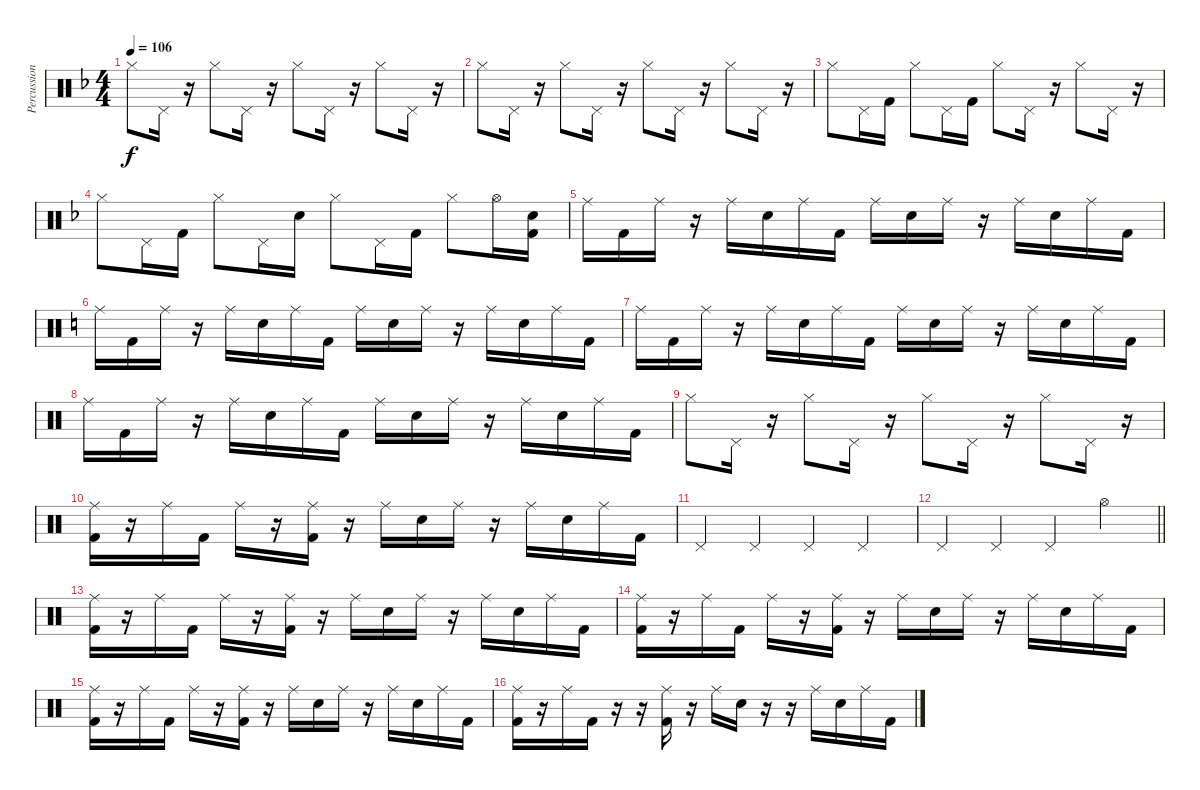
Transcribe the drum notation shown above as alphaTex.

\track ("Percussions" "Percussion") {instrument percussion}
\staff {score}
\articulation defaults
\ts (4 4)
\tempo 106
\clef neutral
\ks f "Hi-Hat (closed)".8{dy f} "Pedal Hi-Hat (hit)".16
r.16 "Hi-Hat (closed)".8 "Pedal Hi-Hat (hit)".16 r.16 "Hi-Hat (closed)".8 "Pedal Hi-Hat (hit)".16 r.16 "Hi-Hat (closed)".8 "Pedal Hi-Hat (hit)".16 r.16 |
"Hi-Hat (closed)".8 "Pedal Hi-Hat (hit)".16 r.16 "Hi-Hat (closed)".8 "Pedal Hi-Hat (hit)".16 r.16 "Hi-Hat (closed)".8 "Pedal Hi-Hat (hit)".16 r.16 "Hi-Hat (closed)".8 "Pedal Hi-Hat (hit)".16 r.16 |
"Hi-Hat (closed)".8 "Pedal Hi-Hat (hit)".16 "Kick (hit) 2".16 "Hi-Hat (closed)".8 "Pedal Hi-Hat (hit)".16 "Kick (hit) 2".16 "Hi-Hat (closed)".8 "Pedal Hi-Hat (hit)".16 r.16 "Hi-Hat (closed)".8 "Pedal Hi-Hat (hit)".16 r.16 |
"Hi-Hat (closed)".8 "Pedal Hi-Hat (hit)".16 "Kick (hit) 2".16 "Hi-Hat (closed)".8 "Pedal Hi-Hat (hit)".16 "Electric Snare (hit)".16 "Hi-Hat (closed)".8 "Pedal Hi-Hat (hit)".16 "Kick (hit) 2".16 "Hi-Hat (closed)".8 "Hi-Hat (open)".16 ("Kick (hit) 2" "Electric Snare (hit)").16 |
"Ride (middle)".16 "Kick (hit) 2".16 "Ride (middle)".16 r.16 "Ride (middle)".16 "Electric Snare (hit)".16 "Ride (middle)".16 "Kick (hit) 2".16 "Ride (middle)".16 "Electric Snare (hit)".16 "Ride (middle)".16 r.16 "Ride (middle)".16 "Electric Snare (hit)".16 "Ride (middle)".16 "Kick (hit) 2".16 |
\ks c "Ride (middle)".16 "Kick (hit) 2".16 "Ride (middle)".16
r.16 "Ride (middle)".16 "Electric Snare (hit)".16 "Ride (middle)".16 "Kick (hit) 2".16 "Ride (middle)".16 "Electric Snare (hit)".16 "Ride (middle)".16 r.16 "Ride (middle)".16 "Electric Snare (hit)".16 "Ride (middle)".16 "Kick (hit) 2".16 |
"Ride (middle)".16 "Kick (hit) 2".16 "Ride (middle)".16 r.16 "Ride (middle)".16 "Electric Snare (hit)".16 "Ride (middle)".16 "Kick (hit) 2".16 "Ride (middle)".16 "Electric Snare (hit)".16 "Ride (middle)".16 r.16 "Ride (middle)".16 "Electric Snare (hit)".16 "Ride (middle)".16 "Kick (hit) 2".16 |
"Ride (middle)".16 "Kick (hit) 2".16 "Ride (middle)".16 r.16 "Ride (middle)".16 "Electric Snare (hit)".16 "Ride (middle)".16 "Kick (hit) 2".16 "Ride (middle)".16 "Electric Snare (hit)".16 "Ride (middle)".16 r.16 "Ride (middle)".16 "Electric Snare (hit)".16 "Ride (middle)".16 "Kick (hit) 2".16 |
"Hi-Hat (closed)".8 "Pedal Hi-Hat (hit)".16 r.16 "Hi-Hat (closed)".8 "Pedal Hi-Hat (hit)".16 r.16 "Hi-Hat (closed)".8 "Pedal Hi-Hat (hit)".16 r.16 "Hi-Hat (closed)".8 "Pedal Hi-Hat (hit)".16 r.16 |
("Ride (middle)" "Kick (hit) 2").16 r.16 "Ride (middle)".16 "Kick (hit) 2".16 "Ride (middle)".16 r.16 ("Ride (middle)" "Kick (hit) 2").16 r.16 "Ride (middle)".16 "Electric Snare (hit)".16 "Ride (middle)".16 r.16 "Ride (middle)".16 "Electric Snare (hit)".16 "Ride (middle)".16 "Kick (hit) 2".16 |
"Pedal Hi-Hat (hit)".4 "Pedal Hi-Hat (hit)".4 "Pedal Hi-Hat (hit)".4 "Pedal Hi-Hat (hit)".4 |
\barLineRight lightlight "Pedal Hi-Hat (hit)".4 "Pedal Hi-Hat (hit)".4 "Pedal Hi-Hat (hit)".4 "Hi-Hat (open)".4
|
("Ride (middle)" "Kick (hit) 2").16 r.16 "Ride (middle)".16 "Kick (hit) 2".16 "Ride (middle)".16 r.16 ("Ride (middle)" "Kick (hit) 2").16 r.16 "Ride (middle)".16 "Electric Snare (hit)".16 "Ride (middle)".16 r.16 "Ride (middle)".16 "Electric Snare (hit)".16 "Ride (middle)".16 "Kick (hit) 2".16 |
("Ride (middle)" "Kick (hit) 2").16 r.16 "Ride (middle)".16 "Kick (hit) 2".16 "Ride (middle)".16 r.16 ("Ride (middle)" "Kick (hit) 2").16 r.16 "Ride (middle)".16 "Electric Snare (hit)".16 "Ride (middle)".16 r.16 "Ride (middle)".16 "Electric Snare (hit)".16 "Ride (middle)".16 "Kick (hit) 2".16 |
("Ride (middle)" "Kick (hit) 2").16 r.16 "Ride (middle)".16 "Kick (hit) 2".16 "Ride (middle)".16 r.16 ("Ride (middle)" "Kick (hit) 2").16 r.16 "Ride (middle)".16 "Electric Snare (hit)".16 "Ride (middle)".16 r.16 "Ride (middle)".16 "Electric Snare (hit)".16 "Ride (middle)".16 "Kick (hit) 2".16 |
("Ride (middle)" "Kick (hit) 2").16 r.16 "Ride (middle)".16 "Kick (hit) 2".16 r.16 r.16 ("Ride (middle)" "Kick (hit) 2").16 r.16 "Ride (middle)".16 "Electric Snare (hit)".16 r.16 r.16 "Ride (middle)".16 "Electric Snare (hit)".16 "Ride (middle)".16 "Kick (hit) 2".16
